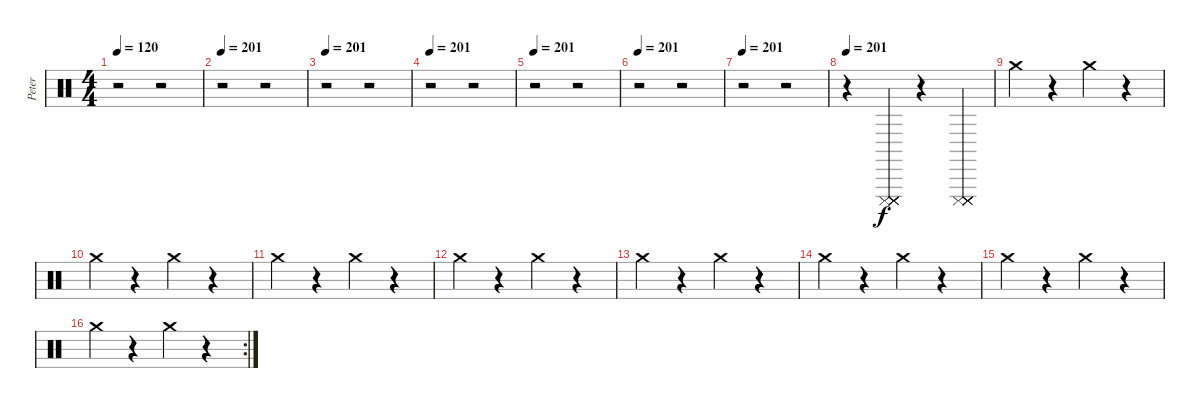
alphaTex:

\track ("Peter" "Peter") {instrument percussion}
\staff {score}
\articulation defaults
\ts (4 4)
\tempo 120
\tempo 201
\tempo 120
\clef neutral
\ks c
r.2{dy f} r.2 |
\tempo 201
r.2 r.2 |
\tempo 201
r.2 r.2 |
\tempo 201
r.2 r.2 |
\tempo 201
r.2 r.2 |
\tempo 201
r.2 r.2 |
\tempo 201
r.2 r.2 |
\tempo 201
r.4 ("Cuica (mute)" "Cuica (mute)" "Cuica (mute)" "Cuica (mute)" "Cuica (mute)" "Cuica (mute)").4 r.4 ("Cuica (mute)" "Cuica (mute)" "Cuica (mute)" "Cuica (mute)" "Cuica (mute)" "Cuica (mute)").4 |
"Crash medium (hit)".4 r.4 "Crash medium (hit)".4 r.4 |
"Crash medium (hit)".4 r.4 "Crash medium (hit)".4 r.4 |
"Crash medium (hit)".4 r.4 "Crash medium (hit)".4 r.4 |
"Crash medium (hit)".4 r.4 "Crash medium (hit)".4 r.4 |
"Crash medium (hit)".4 r.4 "Crash medium (hit)".4 r.4 |
"Crash medium (hit)".4 r.4 "Crash medium (hit)".4 r.4 |
"Crash medium (hit)".4 r.4 "Crash medium (hit)".4 r.4 |
\rc 2 "Crash medium (hit)".4
r.4 "Crash medium (hit)".4 r.4
